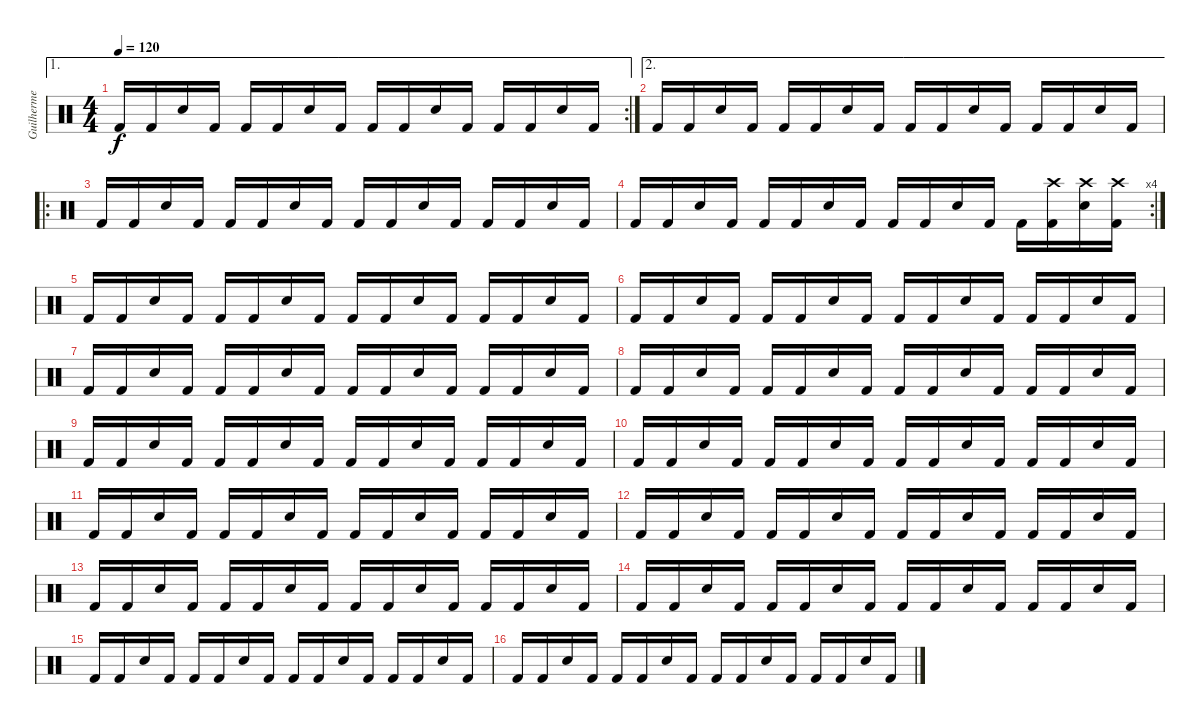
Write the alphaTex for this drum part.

\track ("Guilherme" "Guilherme") {instrument percussion}
\staff {score}
\articulation defaults
\ae 1
\rc 2
\ts (4 4)
\tempo 120
\clef neutral
\ks c "Kick (hit) 2".16{dy f} "Kick (hit) 2".16 "Snare (hit) 2".16 "Kick (hit) 2".16 "Kick (hit) 2".16 "Kick (hit) 2".16 "Snare (hit) 2".16 "Kick (hit) 2".16 "Kick (hit) 2".16 "Kick (hit) 2".16 "Snare (hit) 2".16 "Kick (hit) 2".16 "Kick (hit) 2".16 "Kick (hit) 2".16 "Snare (hit) 2".16 "Kick (hit) 2".16
|
\ae 2 "Kick (hit) 2".16 "Kick (hit) 2".16 "Snare (hit) 2".16 "Kick (hit) 2".16 "Kick (hit) 2".16 "Kick (hit) 2".16 "Snare (hit) 2".16 "Kick (hit) 2".16 "Kick (hit) 2".16 "Kick (hit) 2".16 "Snare (hit) 2".16 "Kick (hit) 2".16 "Kick (hit) 2".16 "Kick (hit) 2".16 "Snare (hit) 2".16 "Kick (hit) 2".16
|
\ro "Kick (hit) 2".16 "Kick (hit) 2".16 "Snare (hit) 2".16 "Kick (hit) 2".16 "Kick (hit) 2".16 "Kick (hit) 2".16 "Snare (hit) 2".16 "Kick (hit) 2".16 "Kick (hit) 2".16 "Kick (hit) 2".16 "Snare (hit) 2".16 "Kick (hit) 2".16 "Kick (hit) 2".16 "Kick (hit) 2".16 "Snare (hit) 2".16 "Kick (hit) 2".16
|
\rc 4 "Kick (hit) 2".16 "Kick (hit) 2".16 "Snare (hit) 2".16 "Kick (hit) 2".16 "Kick (hit) 2".16 "Kick (hit) 2".16 "Snare (hit) 2".16 "Kick (hit) 2".16 "Kick (hit) 2".16 "Kick (hit) 2".16 "Snare (hit) 2".16 "Kick (hit) 2".16 "Kick (hit) 2".16
("Crash high (hit)" "Kick (hit) 2").16 ("Crash high (hit)" "Snare (hit) 2").16 ("Crash high (hit)" "Kick (hit) 2").16 |
"Kick (hit) 2".16 "Kick (hit) 2".16 "Snare (hit) 2".16 "Kick (hit) 2".16 "Kick (hit) 2".16 "Kick (hit) 2".16 "Snare (hit) 2".16 "Kick (hit) 2".16 "Kick (hit) 2".16 "Kick (hit) 2".16 "Snare (hit) 2".16 "Kick (hit) 2".16 "Kick (hit) 2".16 "Kick (hit) 2".16 "Snare (hit) 2".16 "Kick (hit) 2".16 |
"Kick (hit) 2".16 "Kick (hit) 2".16 "Snare (hit) 2".16 "Kick (hit) 2".16 "Kick (hit) 2".16 "Kick (hit) 2".16 "Snare (hit) 2".16 "Kick (hit) 2".16 "Kick (hit) 2".16 "Kick (hit) 2".16 "Snare (hit) 2".16 "Kick (hit) 2".16 "Kick (hit) 2".16 "Kick (hit) 2".16 "Snare (hit) 2".16 "Kick (hit) 2".16 |
"Kick (hit) 2".16 "Kick (hit) 2".16 "Snare (hit) 2".16 "Kick (hit) 2".16 "Kick (hit) 2".16 "Kick (hit) 2".16 "Snare (hit) 2".16 "Kick (hit) 2".16 "Kick (hit) 2".16 "Kick (hit) 2".16 "Snare (hit) 2".16 "Kick (hit) 2".16 "Kick (hit) 2".16 "Kick (hit) 2".16 "Snare (hit) 2".16 "Kick (hit) 2".16 |
"Kick (hit) 2".16 "Kick (hit) 2".16 "Snare (hit) 2".16 "Kick (hit) 2".16 "Kick (hit) 2".16 "Kick (hit) 2".16 "Snare (hit) 2".16 "Kick (hit) 2".16 "Kick (hit) 2".16 "Kick (hit) 2".16 "Snare (hit) 2".16 "Kick (hit) 2".16 "Kick (hit) 2".16 "Kick (hit) 2".16 "Snare (hit) 2".16 "Kick (hit) 2".16 |
"Kick (hit) 2".16 "Kick (hit) 2".16 "Snare (hit) 2".16 "Kick (hit) 2".16 "Kick (hit) 2".16 "Kick (hit) 2".16 "Snare (hit) 2".16 "Kick (hit) 2".16 "Kick (hit) 2".16 "Kick (hit) 2".16 "Snare (hit) 2".16 "Kick (hit) 2".16 "Kick (hit) 2".16 "Kick (hit) 2".16 "Snare (hit) 2".16 "Kick (hit) 2".16 |
"Kick (hit) 2".16 "Kick (hit) 2".16 "Snare (hit) 2".16 "Kick (hit) 2".16 "Kick (hit) 2".16 "Kick (hit) 2".16 "Snare (hit) 2".16 "Kick (hit) 2".16 "Kick (hit) 2".16 "Kick (hit) 2".16 "Snare (hit) 2".16 "Kick (hit) 2".16 "Kick (hit) 2".16 "Kick (hit) 2".16 "Snare (hit) 2".16 "Kick (hit) 2".16 |
"Kick (hit) 2".16 "Kick (hit) 2".16 "Snare (hit) 2".16 "Kick (hit) 2".16 "Kick (hit) 2".16 "Kick (hit) 2".16 "Snare (hit) 2".16 "Kick (hit) 2".16 "Kick (hit) 2".16 "Kick (hit) 2".16 "Snare (hit) 2".16 "Kick (hit) 2".16 "Kick (hit) 2".16 "Kick (hit) 2".16 "Snare (hit) 2".16 "Kick (hit) 2".16 |
"Kick (hit) 2".16 "Kick (hit) 2".16 "Snare (hit) 2".16 "Kick (hit) 2".16 "Kick (hit) 2".16 "Kick (hit) 2".16 "Snare (hit) 2".16 "Kick (hit) 2".16 "Kick (hit) 2".16 "Kick (hit) 2".16 "Snare (hit) 2".16 "Kick (hit) 2".16 "Kick (hit) 2".16 "Kick (hit) 2".16 "Snare (hit) 2".16 "Kick (hit) 2".16 |
"Kick (hit) 2".16 "Kick (hit) 2".16 "Snare (hit) 2".16 "Kick (hit) 2".16 "Kick (hit) 2".16 "Kick (hit) 2".16 "Snare (hit) 2".16 "Kick (hit) 2".16 "Kick (hit) 2".16 "Kick (hit) 2".16 "Snare (hit) 2".16 "Kick (hit) 2".16 "Kick (hit) 2".16 "Kick (hit) 2".16 "Snare (hit) 2".16 "Kick (hit) 2".16 |
"Kick (hit) 2".16 "Kick (hit) 2".16 "Snare (hit) 2".16 "Kick (hit) 2".16 "Kick (hit) 2".16 "Kick (hit) 2".16 "Snare (hit) 2".16 "Kick (hit) 2".16 "Kick (hit) 2".16 "Kick (hit) 2".16 "Snare (hit) 2".16 "Kick (hit) 2".16 "Kick (hit) 2".16 "Kick (hit) 2".16 "Snare (hit) 2".16 "Kick (hit) 2".16 |
"Kick (hit) 2".16 "Kick (hit) 2".16 "Snare (hit) 2".16 "Kick (hit) 2".16 "Kick (hit) 2".16 "Kick (hit) 2".16 "Snare (hit) 2".16 "Kick (hit) 2".16 "Kick (hit) 2".16 "Kick (hit) 2".16 "Snare (hit) 2".16 "Kick (hit) 2".16 "Kick (hit) 2".16 "Kick (hit) 2".16 "Snare (hit) 2".16 "Kick (hit) 2".16 |
"Kick (hit) 2".16 "Kick (hit) 2".16 "Snare (hit) 2".16 "Kick (hit) 2".16 "Kick (hit) 2".16 "Kick (hit) 2".16 "Snare (hit) 2".16 "Kick (hit) 2".16 "Kick (hit) 2".16 "Kick (hit) 2".16 "Snare (hit) 2".16 "Kick (hit) 2".16 "Kick (hit) 2".16 "Kick (hit) 2".16 "Snare (hit) 2".16 "Kick (hit) 2".16
